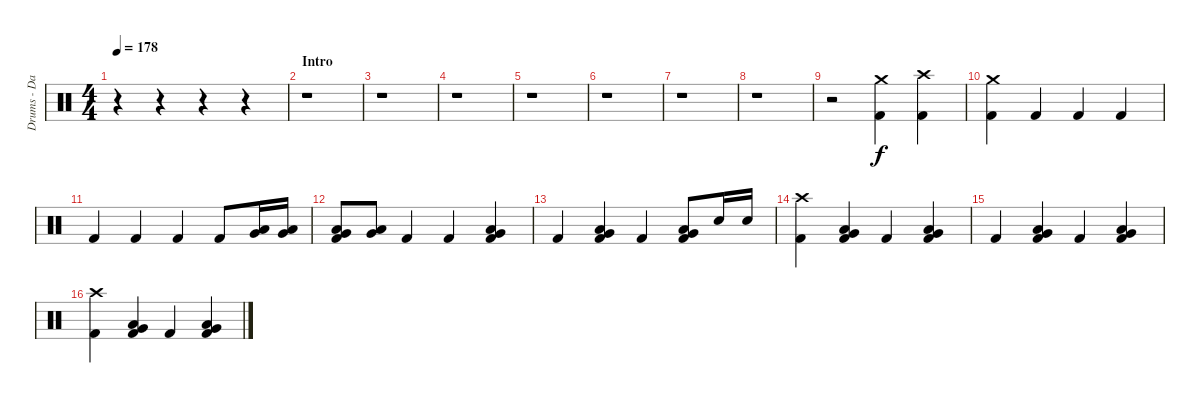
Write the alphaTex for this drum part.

\track ("Drums - Daniel Zimmermann" "Drums - Da") {instrument percussion}
\staff {score}
\articulation defaults
\ts (4 4)
\tempo 178
\clef neutral
\ks c
r.4{dy f} r.4 r.4 r.4 |
\section ("" "Intro")
r.1 |
r.1 |
r.1 |
r.1 |
r.1 |
r.1 |
r.1 |
r.2 ("Kick (hit) 2" "Crash medium (hit)").4 ("Kick (hit) 2" "Crash high (hit)").4 |
("Kick (hit) 2" "Crash medium (hit)").4 "Kick (hit) 2".4 "Kick (hit) 2".4 "Kick (hit) 2".4 |
"Kick (hit) 2".4 "Kick (hit) 2".4 "Kick (hit) 2".4 "Kick (hit) 2".8 ("Low Tom (hit)" "Very Low Tom (hit)").16 ("Low Tom (hit)" "Very Low Tom (hit)").16 |
("Kick (hit) 2" "Low Tom (hit)" "Very Low Tom (hit)").8 ("Low Tom (hit)" "Very Low Tom (hit)").8 "Kick (hit) 2".4 "Kick (hit) 2".4 ("Kick (hit) 2" "Low Tom (hit)" "Very Low Tom (hit)").4 |
"Kick (hit) 2".4 ("Kick (hit) 2" "Low Tom (hit)" "Very Low Tom (hit)").4 "Kick (hit) 2".4 ("Kick (hit) 2" "Low Tom (hit)" "Very Low Tom (hit)").8 "Electric Snare (hit)".16 "Electric Snare (hit)".16 |
("Kick (hit) 2" "Crash high (hit)").4 ("Kick (hit) 2" "Low Tom (hit)" "Very Low Tom (hit)").4 "Kick (hit) 2".4 ("Kick (hit) 2" "Low Tom (hit)" "Very Low Tom (hit)").4 |
"Kick (hit) 2".4 ("Kick (hit) 2" "Low Tom (hit)" "Very Low Tom (hit)").4 "Kick (hit) 2".4 ("Kick (hit) 2" "Low Tom (hit)" "Very Low Tom (hit)").4 |
("Kick (hit) 2" "Crash high (hit)").4 ("Kick (hit) 2" "Low Tom (hit)" "Very Low Tom (hit)").4 "Kick (hit) 2".4 ("Kick (hit) 2" "Low Tom (hit)" "Very Low Tom (hit)").4
